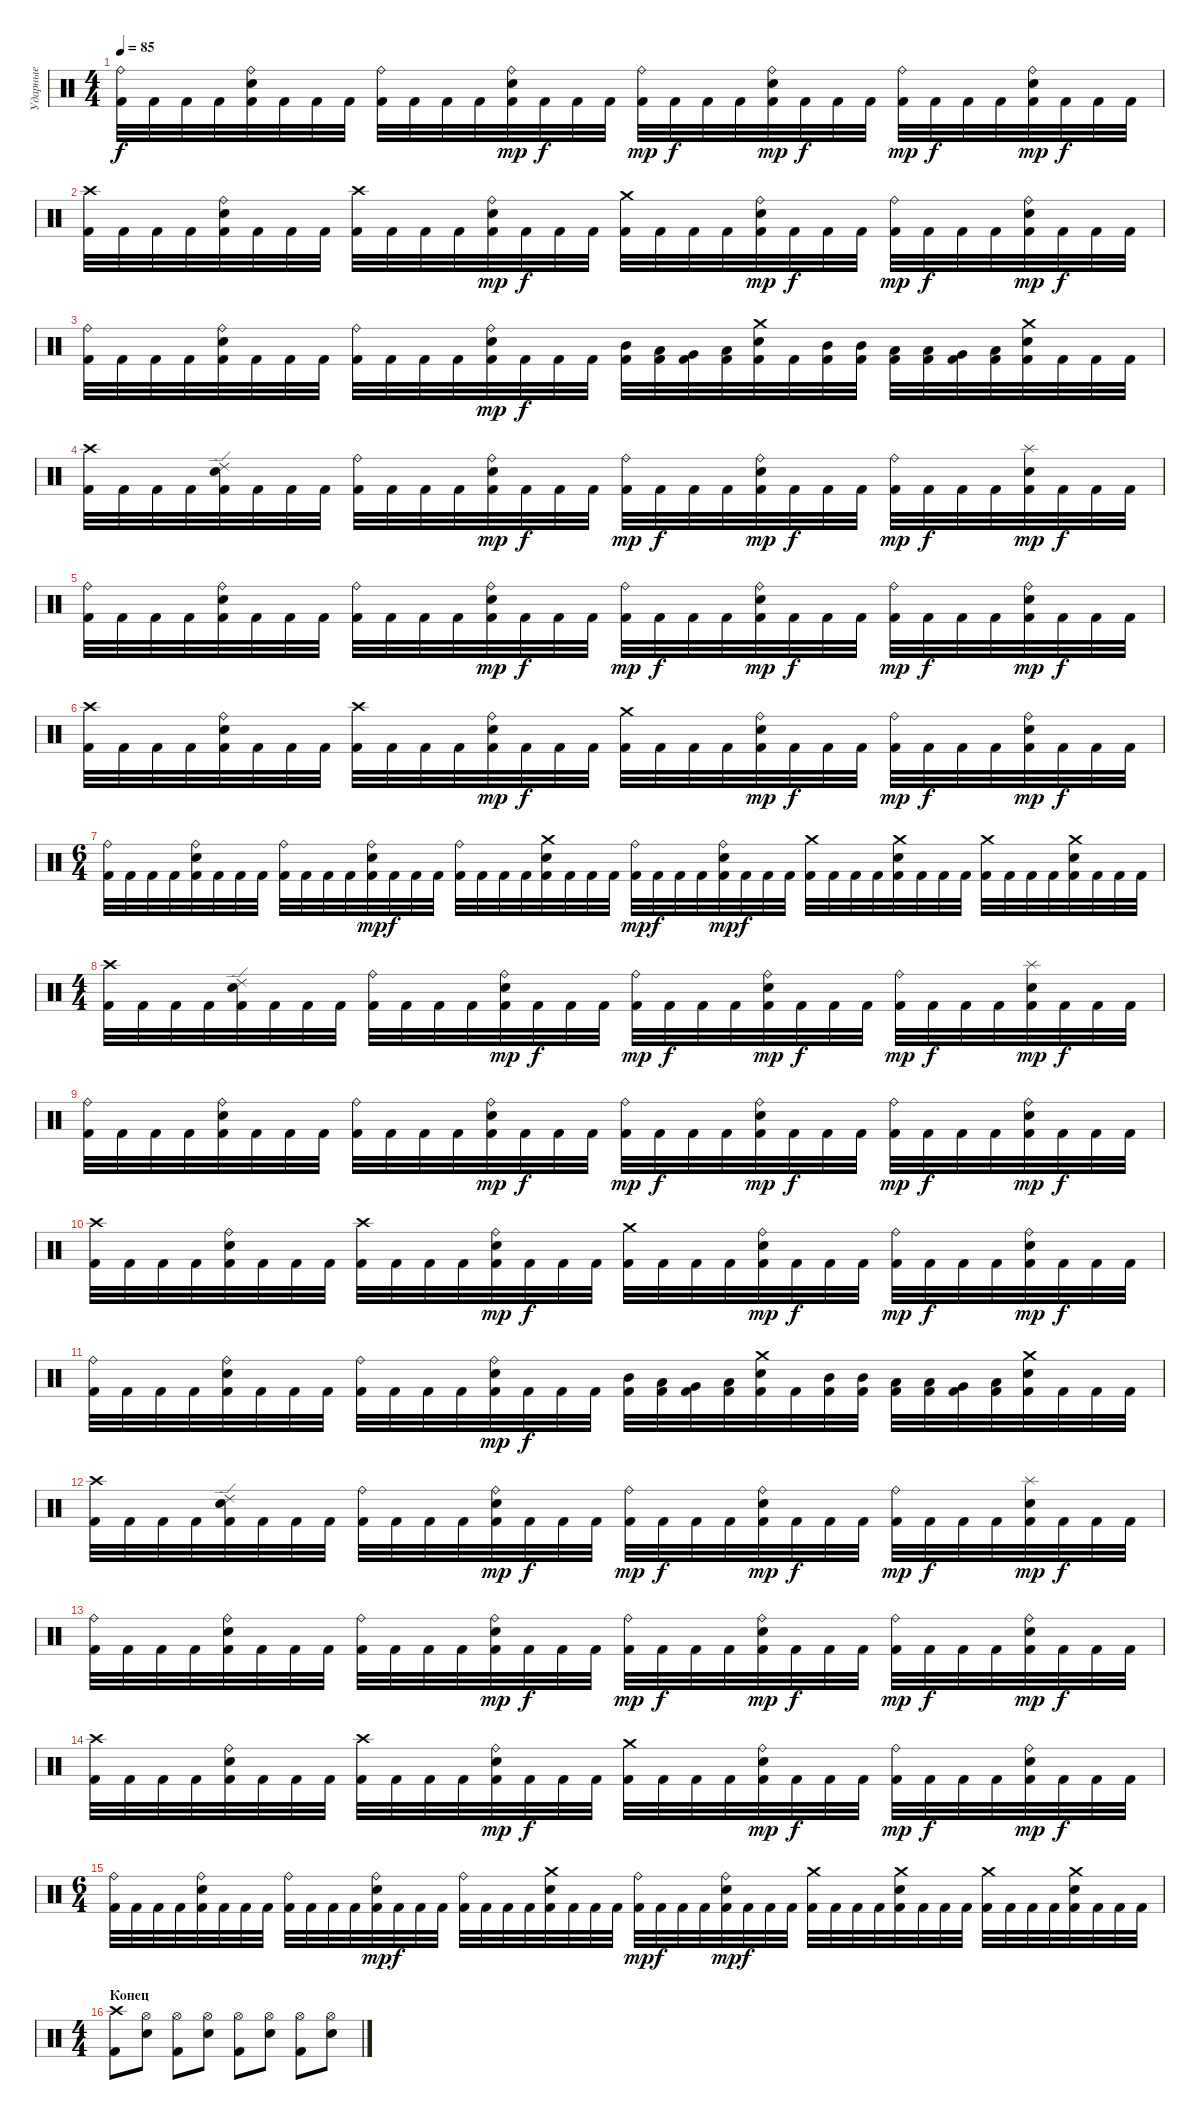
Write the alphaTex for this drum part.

\track ("Ударные" "Ударные") {instrument percussion}
\staff {score}
\articulation defaults
\ts (4 4)
\tempo 85
\clef neutral
\ks c
("Ride (bell)" "Kick (hit) 2").32{dy f} "Kick (hit) 2".32 "Kick (hit) 2".32 "Kick (hit) 2".32 ("Ride (bell)" "Snare (hit) 2" "Kick (hit) 2").32 "Kick (hit) 2".32 "Kick (hit) 2".32 "Kick (hit) 2".32 ("Ride (bell)" "Kick (hit) 2").32 "Kick (hit) 2".32 "Kick (hit) 2".32 "Kick (hit) 2".32 ("Ride (bell)" "Snare (hit) 2" "Kick (hit) 2").32{dy mp} "Kick (hit) 2".32{dy f} "Kick (hit) 2".32 "Kick (hit) 2".32 ("Ride (bell)" "Kick (hit) 2").32{dy mp} "Kick (hit) 2".32{dy f} "Kick (hit) 2".32 "Kick (hit) 2".32 ("Ride (bell)" "Snare (hit) 2" "Kick (hit) 2").32{dy mp} "Kick (hit) 2".32{dy f} "Kick (hit) 2".32 "Kick (hit) 2".32 ("Ride (bell)" "Kick (hit) 2").32{dy mp} "Kick (hit) 2".32{dy f} "Kick (hit) 2".32 "Kick (hit) 2".32 ("Ride (bell)" "Snare (hit) 2" "Kick (hit) 2").32{dy mp} "Kick (hit) 2".32{dy f} "Kick (hit) 2".32 "Kick (hit) 2".32 |
("Crash high (hit)" "Kick (hit) 2").32 "Kick (hit) 2".32 "Kick (hit) 2".32 "Kick (hit) 2".32 ("Ride (bell)" "Snare (hit) 2" "Kick (hit) 2").32 "Kick (hit) 2".32 "Kick (hit) 2".32 "Kick (hit) 2".32 ("Crash high (hit)" "Kick (hit) 2").32 "Kick (hit) 2".32 "Kick (hit) 2".32 "Kick (hit) 2".32 ("Ride (bell)" "Snare (hit) 2" "Kick (hit) 2").32{dy mp} "Kick (hit) 2".32{dy f} "Kick (hit) 2".32 "Kick (hit) 2".32 ("Crash medium (hit)" "Kick (hit) 2").32 "Kick (hit) 2".32 "Kick (hit) 2".32 "Kick (hit) 2".32 ("Ride (bell)" "Snare (hit) 2" "Kick (hit) 2").32{dy mp} "Kick (hit) 2".32{dy f} "Kick (hit) 2".32 "Kick (hit) 2".32 ("Ride (bell)" "Kick (hit) 2").32{dy mp} "Kick (hit) 2".32{dy f} "Kick (hit) 2".32 "Kick (hit) 2".32 ("Ride (bell)" "Snare (hit) 2" "Kick (hit) 2").32{dy mp} "Kick (hit) 2".32{dy f} "Kick (hit) 2".32 "Kick (hit) 2".32 |
("Ride (bell)" "Kick (hit) 2").32 "Kick (hit) 2".32 "Kick (hit) 2".32 "Kick (hit) 2".32 ("Ride (bell)" "Snare (hit) 2" "Kick (hit) 2").32 "Kick (hit) 2".32 "Kick (hit) 2".32 "Kick (hit) 2".32 ("Ride (bell)" "Kick (hit) 2").32 "Kick (hit) 2".32 "Kick (hit) 2".32 "Kick (hit) 2".32 ("Ride (bell)" "Snare (hit) 2" "Kick (hit) 2").32{dy mp} "Kick (hit) 2".32{dy f} "Kick (hit) 2".32 "Kick (hit) 2".32 ("Mid Tom (hit)" "Kick (hit) 2").32 ("Low Tom (hit)" "Kick (hit) 2").32 ("Very Low Tom (hit)" "Kick (hit) 2").32 ("Low Floor Tom (hit)" "Kick (hit) 2").32 ("Crash medium (hit)" "Snare (hit) 2" "Kick (hit) 2").32 "Kick (hit) 2".32 ("Mid Tom (hit)" "Kick (hit) 2").32 ("Mid Tom (hit)" "Kick (hit) 2").32 ("Low Tom (hit)" "Kick (hit) 2").32 ("Low Tom (hit)" "Kick (hit) 2").32 ("Very Low Tom (hit)" "Kick (hit) 2").32 ("Low Floor Tom (hit)" "Kick (hit) 2").32 ("Crash medium (hit)" "Snare (hit) 2" "Kick (hit) 2").32 "Kick (hit) 2".32 "Kick (hit) 2".32 "Kick (hit) 2".32 |
("Crash high (hit)" "Kick (hit) 2").32 "Kick (hit) 2".32 "Kick (hit) 2".32 "Kick (hit) 2".32 ("Ride (edge) 2" "Snare (hit) 2" "Kick (hit) 2").32 "Kick (hit) 2".32 "Kick (hit) 2".32 "Kick (hit) 2".32 ("Ride (bell)" "Kick (hit) 2").32 "Kick (hit) 2".32 "Kick (hit) 2".32 "Kick (hit) 2".32 ("Ride (bell)" "Snare (hit) 2" "Kick (hit) 2").32{dy mp} "Kick (hit) 2".32{dy f} "Kick (hit) 2".32 "Kick (hit) 2".32 ("Ride (bell)" "Kick (hit) 2").32{dy mp} "Kick (hit) 2".32{dy f} "Kick (hit) 2".32 "Kick (hit) 2".32 ("Ride (bell)" "Snare (hit) 2" "Kick (hit) 2").32{dy mp} "Kick (hit) 2".32{dy f} "Kick (hit) 2".32 "Kick (hit) 2".32 ("Ride (bell)" "Kick (hit) 2").32{dy mp} "Kick (hit) 2".32{dy f} "Kick (hit) 2".32 "Kick (hit) 2".32 ("Splash (hit)" "Snare (hit) 2" "Kick (hit) 2").32{dy mp} "Kick (hit) 2".32{dy f} "Kick (hit) 2".32 "Kick (hit) 2".32 |
("Ride (bell)" "Kick (hit) 2").32 "Kick (hit) 2".32 "Kick (hit) 2".32 "Kick (hit) 2".32 ("Ride (bell)" "Snare (hit) 2" "Kick (hit) 2").32 "Kick (hit) 2".32 "Kick (hit) 2".32 "Kick (hit) 2".32 ("Ride (bell)" "Kick (hit) 2").32 "Kick (hit) 2".32 "Kick (hit) 2".32 "Kick (hit) 2".32 ("Ride (bell)" "Snare (hit) 2" "Kick (hit) 2").32{dy mp} "Kick (hit) 2".32{dy f} "Kick (hit) 2".32 "Kick (hit) 2".32 ("Ride (bell)" "Kick (hit) 2").32{dy mp} "Kick (hit) 2".32{dy f} "Kick (hit) 2".32 "Kick (hit) 2".32 ("Ride (bell)" "Snare (hit) 2" "Kick (hit) 2").32{dy mp} "Kick (hit) 2".32{dy f} "Kick (hit) 2".32 "Kick (hit) 2".32 ("Ride (bell)" "Kick (hit) 2").32{dy mp} "Kick (hit) 2".32{dy f} "Kick (hit) 2".32 "Kick (hit) 2".32 ("Ride (bell)" "Snare (hit) 2" "Kick (hit) 2").32{dy mp} "Kick (hit) 2".32{dy f} "Kick (hit) 2".32 "Kick (hit) 2".32 |
("Crash high (hit)" "Kick (hit) 2").32 "Kick (hit) 2".32 "Kick (hit) 2".32 "Kick (hit) 2".32 ("Ride (bell)" "Snare (hit) 2" "Kick (hit) 2").32 "Kick (hit) 2".32 "Kick (hit) 2".32 "Kick (hit) 2".32 ("Crash high (hit)" "Kick (hit) 2").32 "Kick (hit) 2".32 "Kick (hit) 2".32 "Kick (hit) 2".32 ("Ride (bell)" "Snare (hit) 2" "Kick (hit) 2").32{dy mp} "Kick (hit) 2".32{dy f} "Kick (hit) 2".32 "Kick (hit) 2".32 ("Crash medium (hit)" "Kick (hit) 2").32 "Kick (hit) 2".32 "Kick (hit) 2".32 "Kick (hit) 2".32 ("Ride (bell)" "Snare (hit) 2" "Kick (hit) 2").32{dy mp} "Kick (hit) 2".32{dy f} "Kick (hit) 2".32 "Kick (hit) 2".32 ("Ride (bell)" "Kick (hit) 2").32{dy mp} "Kick (hit) 2".32{dy f} "Kick (hit) 2".32 "Kick (hit) 2".32 ("Ride (bell)" "Snare (hit) 2" "Kick (hit) 2").32{dy mp} "Kick (hit) 2".32{dy f} "Kick (hit) 2".32 "Kick (hit) 2".32 |
\ts (6 4)
("Ride (bell)" "Kick (hit) 2").32 "Kick (hit) 2".32 "Kick (hit) 2".32 "Kick (hit) 2".32 ("Ride (bell)" "Snare (hit) 2" "Kick (hit) 2").32 "Kick (hit) 2".32 "Kick (hit) 2".32 "Kick (hit) 2".32 ("Ride (bell)" "Kick (hit) 2").32 "Kick (hit) 2".32 "Kick (hit) 2".32 "Kick (hit) 2".32 ("Ride (bell)" "Snare (hit) 2" "Kick (hit) 2").32{dy mp} "Kick (hit) 2".32{dy f} "Kick (hit) 2".32 "Kick (hit) 2".32 ("Ride (bell)" "Kick (hit) 2").32 "Kick (hit) 2".32 "Kick (hit) 2".32 "Kick (hit) 2".32 ("Crash medium (hit)" "Snare (hit) 2" "Kick (hit) 2").32 "Kick (hit) 2".32 "Kick (hit) 2".32 "Kick (hit) 2".32 ("Ride (bell)" "Kick (hit) 2").32{dy mp} "Kick (hit) 2".32{dy f} "Kick (hit) 2".32 "Kick (hit) 2".32 ("Ride (bell)" "Snare (hit) 2" "Kick (hit) 2").32{dy mp} "Kick (hit) 2".32{dy f} "Kick (hit) 2".32 "Kick (hit) 2".32 ("Crash medium (hit)" "Kick (hit) 2").32 "Kick (hit) 2".32 "Kick (hit) 2".32 "Kick (hit) 2".32 ("Crash medium (hit)" "Snare (hit) 2" "Kick (hit) 2").32 "Kick (hit) 2".32 "Kick (hit) 2".32 "Kick (hit) 2".32 ("Crash medium (hit)" "Kick (hit) 2").32 "Kick (hit) 2".32 "Kick (hit) 2".32 "Kick (hit) 2".32 ("Crash medium (hit)" "Snare (hit) 2" "Kick (hit) 2").32 "Kick (hit) 2".32 "Kick (hit) 2".32 "Kick (hit) 2".32 |
\ts (4 4)
("Crash high (hit)" "Kick (hit) 2").32 "Kick (hit) 2".32 "Kick (hit) 2".32 "Kick (hit) 2".32 ("Ride (edge) 2" "Snare (hit) 2" "Kick (hit) 2").32 "Kick (hit) 2".32 "Kick (hit) 2".32 "Kick (hit) 2".32 ("Ride (bell)" "Kick (hit) 2").32 "Kick (hit) 2".32 "Kick (hit) 2".32 "Kick (hit) 2".32 ("Ride (bell)" "Snare (hit) 2" "Kick (hit) 2").32{dy mp} "Kick (hit) 2".32{dy f} "Kick (hit) 2".32 "Kick (hit) 2".32 ("Ride (bell)" "Kick (hit) 2").32{dy mp} "Kick (hit) 2".32{dy f} "Kick (hit) 2".32 "Kick (hit) 2".32 ("Ride (bell)" "Snare (hit) 2" "Kick (hit) 2").32{dy mp} "Kick (hit) 2".32{dy f} "Kick (hit) 2".32 "Kick (hit) 2".32 ("Ride (bell)" "Kick (hit) 2").32{dy mp} "Kick (hit) 2".32{dy f} "Kick (hit) 2".32 "Kick (hit) 2".32 ("Splash (hit)" "Snare (hit) 2" "Kick (hit) 2").32{dy mp} "Kick (hit) 2".32{dy f} "Kick (hit) 2".32 "Kick (hit) 2".32 |
("Ride (bell)" "Kick (hit) 2").32 "Kick (hit) 2".32 "Kick (hit) 2".32 "Kick (hit) 2".32 ("Ride (bell)" "Snare (hit) 2" "Kick (hit) 2").32 "Kick (hit) 2".32 "Kick (hit) 2".32 "Kick (hit) 2".32 ("Ride (bell)" "Kick (hit) 2").32 "Kick (hit) 2".32 "Kick (hit) 2".32 "Kick (hit) 2".32 ("Ride (bell)" "Snare (hit) 2" "Kick (hit) 2").32{dy mp} "Kick (hit) 2".32{dy f} "Kick (hit) 2".32 "Kick (hit) 2".32 ("Ride (bell)" "Kick (hit) 2").32{dy mp} "Kick (hit) 2".32{dy f} "Kick (hit) 2".32 "Kick (hit) 2".32 ("Ride (bell)" "Snare (hit) 2" "Kick (hit) 2").32{dy mp} "Kick (hit) 2".32{dy f} "Kick (hit) 2".32 "Kick (hit) 2".32 ("Ride (bell)" "Kick (hit) 2").32{dy mp} "Kick (hit) 2".32{dy f} "Kick (hit) 2".32 "Kick (hit) 2".32 ("Ride (bell)" "Snare (hit) 2" "Kick (hit) 2").32{dy mp} "Kick (hit) 2".32{dy f} "Kick (hit) 2".32 "Kick (hit) 2".32 |
("Crash high (hit)" "Kick (hit) 2").32 "Kick (hit) 2".32 "Kick (hit) 2".32 "Kick (hit) 2".32 ("Ride (bell)" "Snare (hit) 2" "Kick (hit) 2").32 "Kick (hit) 2".32 "Kick (hit) 2".32 "Kick (hit) 2".32 ("Crash high (hit)" "Kick (hit) 2").32 "Kick (hit) 2".32 "Kick (hit) 2".32 "Kick (hit) 2".32 ("Ride (bell)" "Snare (hit) 2" "Kick (hit) 2").32{dy mp} "Kick (hit) 2".32{dy f} "Kick (hit) 2".32 "Kick (hit) 2".32 ("Crash medium (hit)" "Kick (hit) 2").32 "Kick (hit) 2".32 "Kick (hit) 2".32 "Kick (hit) 2".32 ("Ride (bell)" "Snare (hit) 2" "Kick (hit) 2").32{dy mp} "Kick (hit) 2".32{dy f} "Kick (hit) 2".32 "Kick (hit) 2".32 ("Ride (bell)" "Kick (hit) 2").32{dy mp} "Kick (hit) 2".32{dy f} "Kick (hit) 2".32 "Kick (hit) 2".32 ("Ride (bell)" "Snare (hit) 2" "Kick (hit) 2").32{dy mp} "Kick (hit) 2".32{dy f} "Kick (hit) 2".32 "Kick (hit) 2".32 |
("Ride (bell)" "Kick (hit) 2").32 "Kick (hit) 2".32 "Kick (hit) 2".32 "Kick (hit) 2".32 ("Ride (bell)" "Snare (hit) 2" "Kick (hit) 2").32 "Kick (hit) 2".32 "Kick (hit) 2".32 "Kick (hit) 2".32 ("Ride (bell)" "Kick (hit) 2").32 "Kick (hit) 2".32 "Kick (hit) 2".32 "Kick (hit) 2".32 ("Ride (bell)" "Snare (hit) 2" "Kick (hit) 2").32{dy mp} "Kick (hit) 2".32{dy f} "Kick (hit) 2".32 "Kick (hit) 2".32 ("Mid Tom (hit)" "Kick (hit) 2").32 ("Low Tom (hit)" "Kick (hit) 2").32 ("Very Low Tom (hit)" "Kick (hit) 2").32 ("Low Floor Tom (hit)" "Kick (hit) 2").32 ("Crash medium (hit)" "Snare (hit) 2" "Kick (hit) 2").32 "Kick (hit) 2".32 ("Mid Tom (hit)" "Kick (hit) 2").32 ("Mid Tom (hit)" "Kick (hit) 2").32 ("Low Tom (hit)" "Kick (hit) 2").32 ("Low Tom (hit)" "Kick (hit) 2").32 ("Very Low Tom (hit)" "Kick (hit) 2").32 ("Low Floor Tom (hit)" "Kick (hit) 2").32 ("Crash medium (hit)" "Snare (hit) 2" "Kick (hit) 2").32 "Kick (hit) 2".32 "Kick (hit) 2".32 "Kick (hit) 2".32 |
("Crash high (hit)" "Kick (hit) 2").32 "Kick (hit) 2".32 "Kick (hit) 2".32 "Kick (hit) 2".32 ("Ride (edge) 2" "Snare (hit) 2" "Kick (hit) 2").32 "Kick (hit) 2".32 "Kick (hit) 2".32 "Kick (hit) 2".32 ("Ride (bell)" "Kick (hit) 2").32 "Kick (hit) 2".32 "Kick (hit) 2".32 "Kick (hit) 2".32 ("Ride (bell)" "Snare (hit) 2" "Kick (hit) 2").32{dy mp} "Kick (hit) 2".32{dy f} "Kick (hit) 2".32 "Kick (hit) 2".32 ("Ride (bell)" "Kick (hit) 2").32{dy mp} "Kick (hit) 2".32{dy f} "Kick (hit) 2".32 "Kick (hit) 2".32 ("Ride (bell)" "Snare (hit) 2" "Kick (hit) 2").32{dy mp} "Kick (hit) 2".32{dy f} "Kick (hit) 2".32 "Kick (hit) 2".32 ("Ride (bell)" "Kick (hit) 2").32{dy mp} "Kick (hit) 2".32{dy f} "Kick (hit) 2".32 "Kick (hit) 2".32 ("Splash (hit)" "Snare (hit) 2" "Kick (hit) 2").32{dy mp} "Kick (hit) 2".32{dy f} "Kick (hit) 2".32 "Kick (hit) 2".32 |
("Ride (bell)" "Kick (hit) 2").32 "Kick (hit) 2".32 "Kick (hit) 2".32 "Kick (hit) 2".32 ("Ride (bell)" "Snare (hit) 2" "Kick (hit) 2").32 "Kick (hit) 2".32 "Kick (hit) 2".32 "Kick (hit) 2".32 ("Ride (bell)" "Kick (hit) 2").32 "Kick (hit) 2".32 "Kick (hit) 2".32 "Kick (hit) 2".32 ("Ride (bell)" "Snare (hit) 2" "Kick (hit) 2").32{dy mp} "Kick (hit) 2".32{dy f} "Kick (hit) 2".32 "Kick (hit) 2".32 ("Ride (bell)" "Kick (hit) 2").32{dy mp} "Kick (hit) 2".32{dy f} "Kick (hit) 2".32 "Kick (hit) 2".32 ("Ride (bell)" "Snare (hit) 2" "Kick (hit) 2").32{dy mp} "Kick (hit) 2".32{dy f} "Kick (hit) 2".32 "Kick (hit) 2".32 ("Ride (bell)" "Kick (hit) 2").32{dy mp} "Kick (hit) 2".32{dy f} "Kick (hit) 2".32 "Kick (hit) 2".32 ("Ride (bell)" "Snare (hit) 2" "Kick (hit) 2").32{dy mp} "Kick (hit) 2".32{dy f} "Kick (hit) 2".32 "Kick (hit) 2".32 |
("Crash high (hit)" "Kick (hit) 2").32 "Kick (hit) 2".32 "Kick (hit) 2".32 "Kick (hit) 2".32 ("Ride (bell)" "Snare (hit) 2" "Kick (hit) 2").32 "Kick (hit) 2".32 "Kick (hit) 2".32 "Kick (hit) 2".32 ("Crash high (hit)" "Kick (hit) 2").32 "Kick (hit) 2".32 "Kick (hit) 2".32 "Kick (hit) 2".32 ("Ride (bell)" "Snare (hit) 2" "Kick (hit) 2").32{dy mp} "Kick (hit) 2".32{dy f} "Kick (hit) 2".32 "Kick (hit) 2".32 ("Crash medium (hit)" "Kick (hit) 2").32 "Kick (hit) 2".32 "Kick (hit) 2".32 "Kick (hit) 2".32 ("Ride (bell)" "Snare (hit) 2" "Kick (hit) 2").32{dy mp} "Kick (hit) 2".32{dy f} "Kick (hit) 2".32 "Kick (hit) 2".32 ("Ride (bell)" "Kick (hit) 2").32{dy mp} "Kick (hit) 2".32{dy f} "Kick (hit) 2".32 "Kick (hit) 2".32 ("Ride (bell)" "Snare (hit) 2" "Kick (hit) 2").32{dy mp} "Kick (hit) 2".32{dy f} "Kick (hit) 2".32 "Kick (hit) 2".32 |
\ts (6 4)
("Ride (bell)" "Kick (hit) 2").32 "Kick (hit) 2".32 "Kick (hit) 2".32 "Kick (hit) 2".32 ("Ride (bell)" "Snare (hit) 2" "Kick (hit) 2").32 "Kick (hit) 2".32 "Kick (hit) 2".32 "Kick (hit) 2".32 ("Ride (bell)" "Kick (hit) 2").32 "Kick (hit) 2".32 "Kick (hit) 2".32 "Kick (hit) 2".32 ("Ride (bell)" "Snare (hit) 2" "Kick (hit) 2").32{dy mp} "Kick (hit) 2".32{dy f} "Kick (hit) 2".32 "Kick (hit) 2".32 ("Ride (bell)" "Kick (hit) 2").32 "Kick (hit) 2".32 "Kick (hit) 2".32 "Kick (hit) 2".32 ("Crash medium (hit)" "Snare (hit) 2" "Kick (hit) 2").32 "Kick (hit) 2".32 "Kick (hit) 2".32 "Kick (hit) 2".32 ("Ride (bell)" "Kick (hit) 2").32{dy mp} "Kick (hit) 2".32{dy f} "Kick (hit) 2".32 "Kick (hit) 2".32 ("Ride (bell)" "Snare (hit) 2" "Kick (hit) 2").32{dy mp} "Kick (hit) 2".32{dy f} "Kick (hit) 2".32 "Kick (hit) 2".32 ("Crash medium (hit)" "Kick (hit) 2").32 "Kick (hit) 2".32 "Kick (hit) 2".32 "Kick (hit) 2".32 ("Crash medium (hit)" "Snare (hit) 2" "Kick (hit) 2").32 "Kick (hit) 2".32 "Kick (hit) 2".32 "Kick (hit) 2".32 ("Crash medium (hit)" "Kick (hit) 2").32 "Kick (hit) 2".32 "Kick (hit) 2".32 "Kick (hit) 2".32 ("Crash medium (hit)" "Snare (hit) 2" "Kick (hit) 2").32 "Kick (hit) 2".32 "Kick (hit) 2".32 "Kick (hit) 2".32 |
\ts (4 4)
\section ("" "Конец")
("Crash high (hit)" "Kick (hit) 2").8 ("Hi-Hat (open)" "Snare (hit) 2").8 ("Hi-Hat (open)" "Kick (hit) 2").8 ("Hi-Hat (open)" "Snare (hit) 2").8 ("Hi-Hat (open)" "Kick (hit) 2").8 ("Hi-Hat (open)" "Snare (hit) 2").8 ("Hi-Hat (open)" "Kick (hit) 2").8 ("Hi-Hat (open)" "Snare (hit) 2").8
